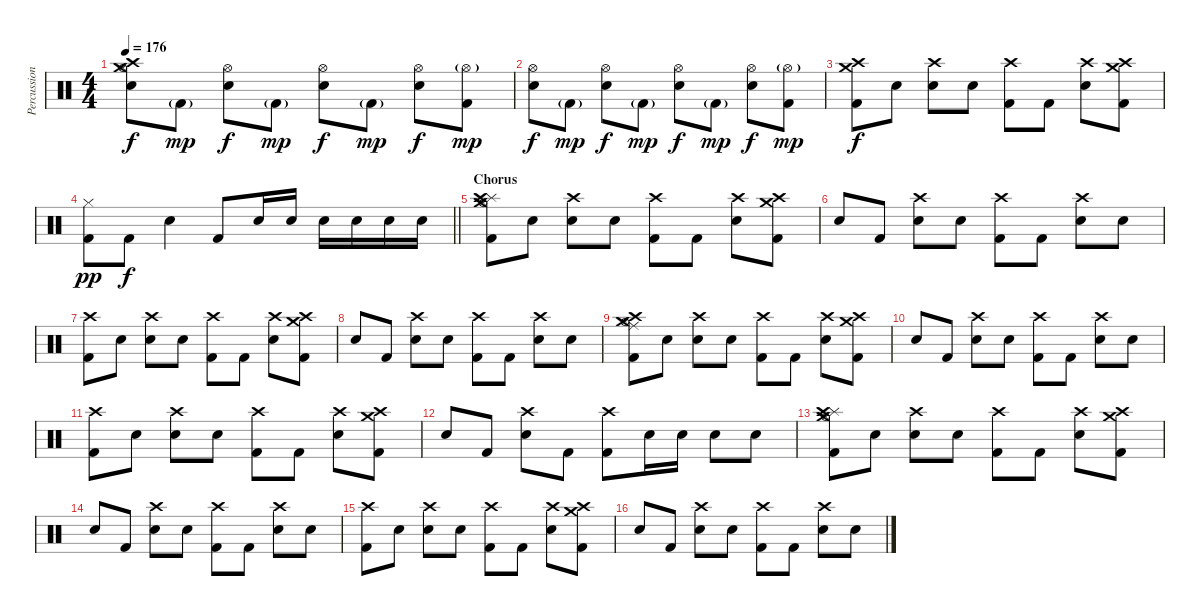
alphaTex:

\track ("Percussion" "Percussion") {instrument percussion}
\staff {score}
\articulation defaults
\ts (4 4)
\tempo 176
\clef neutral
\ks c
("Crash medium (hit)" "Crash high (hit)" "Hi-Hat (open)" "Electric Snare (hit)").8{dy f} "Kick (hit) 2"{g}.8{dy mp} ("Hi-Hat (open)" "Electric Snare (hit)").8{dy f} "Kick (hit) 2"{g}.8{dy mp} ("Hi-Hat (open)" "Electric Snare (hit)").8{dy f} "Kick (hit) 2"{g}.8{dy mp} ("Hi-Hat (open)" "Electric Snare (hit)").8{dy f} ("Hi-Hat (open)"{g} "Kick (hit) 2").8{dy mp} |
("Hi-Hat (open)" "Electric Snare (hit)").8{dy f} "Kick (hit) 2"{g}.8{dy mp} ("Hi-Hat (open)" "Electric Snare (hit)").8{dy f} "Kick (hit) 2"{g}.8{dy mp} ("Hi-Hat (open)" "Electric Snare (hit)").8{dy f} "Kick (hit) 2"{g}.8{dy mp} ("Hi-Hat (open)" "Electric Snare (hit)").8{dy f} ("Hi-Hat (open)"{g} "Kick (hit) 2").8{dy mp} |
("Crash medium (hit)" "Crash high (hit)" "Kick (hit) 2").8{dy f} "Snare (hit)"{x}.8 ("Crash high (hit)" "Electric Snare (hit)").8 "Snare (hit)"{x}.8 ("Crash high (hit)" "Kick (hit) 2").8 "Kick (hit) 2".8 ("Crash high (hit)" "Electric Snare (hit)").8 ("Crash high (hit)" "Crash medium (hit)" "Kick (hit) 2").8 |
\barLineRight lightlight
("Hi-Hat (closed)" "Kick (hit) 2").8{dy pp} "Kick (hit) 2".8{dy f} "Electric Snare (hit)".4 "Kick (hit) 2".8 "Electric Snare (hit)".16 "Electric Snare (hit)".16 "Electric Snare (hit)".16 "Electric Snare (hit)".16 "Electric Snare (hit)".16 "Electric Snare (hit)".16 |
\section ("" "Chorus")
("Splash (hit)" "Hi-Hat (open)" "Crash medium (hit)" "Crash high (hit)" "Kick (hit) 2").8 "Snare (hit)"{x}.8 ("Crash high (hit)" "Electric Snare (hit)").8 "Snare (hit)"{x}.8 ("Crash high (hit)" "Kick (hit) 2").8 "Kick (hit) 2".8 ("Crash high (hit)" "Electric Snare (hit)").8 ("Crash high (hit)" "Crash medium (hit)" "Kick (hit) 2").8 |
"Snare (hit)"{x}.8 "Kick (hit) 2".8 ("Crash high (hit)" "Electric Snare (hit)").8 "Snare (hit)"{x}.8 ("Crash high (hit)" "Kick (hit) 2").8 "Kick (hit) 2".8 ("Crash high (hit)" "Electric Snare (hit)").8 "Snare (hit)"{x}.8 |
("Crash high (hit)" "Kick (hit) 2").8 "Snare (hit)"{x}.8 ("Crash high (hit)" "Electric Snare (hit)").8 "Snare (hit)"{x}.8 ("Crash high (hit)" "Kick (hit) 2").8 "Kick (hit) 2".8 ("Crash high (hit)" "Electric Snare (hit)").8 ("Crash high (hit)" "Crash medium (hit)" "Kick (hit) 2").8 |
"Snare (hit)"{x}.8 "Kick (hit) 2".8 ("Crash high (hit)" "Electric Snare (hit)").8 "Snare (hit)"{x}.8 ("Crash high (hit)" "Kick (hit) 2").8 "Kick (hit) 2".8 ("Crash high (hit)" "Electric Snare (hit)").8 "Electric Snare (hit)".8 |
("Ride (middle)" "Hi-Hat (open)" "Crash medium (hit)" "Crash high (hit)" "Kick (hit) 2").8 "Snare (hit)"{x}.8 ("Crash high (hit)" "Electric Snare (hit)").8 "Snare (hit)"{x}.8 ("Crash high (hit)" "Kick (hit) 2").8 "Kick (hit) 2".8 ("Crash high (hit)" "Electric Snare (hit)").8 ("Crash high (hit)" "Crash medium (hit)" "Kick (hit) 2").8 |
"Snare (hit)"{x}.8 "Kick (hit) 2".8 ("Crash high (hit)" "Electric Snare (hit)").8 "Snare (hit)"{x}.8 ("Crash high (hit)" "Kick (hit) 2").8 "Kick (hit) 2".8 ("Crash high (hit)" "Electric Snare (hit)").8 "Snare (hit)"{x}.8 |
("Crash high (hit)" "Kick (hit) 2").8 "Snare (hit)"{x}.8 ("Crash high (hit)" "Electric Snare (hit)").8 "Snare (hit)"{x}.8 ("Crash high (hit)" "Kick (hit) 2").8 "Kick (hit) 2".8 ("Crash high (hit)" "Electric Snare (hit)").8 ("Crash high (hit)" "Crash medium (hit)" "Kick (hit) 2").8 |
"Snare (hit)"{x}.8 "Kick (hit) 2".8 ("Crash high (hit)" "Electric Snare (hit)").8 "Kick (hit) 2".8 ("Crash high (hit)" "Kick (hit) 2").8 "Electric Snare (hit)".16 "Electric Snare (hit)".16 "Electric Snare (hit)".8 "Electric Snare (hit)".8 |
("Splash (hit)" "Hi-Hat (open)" "Crash medium (hit)" "Crash high (hit)" "Kick (hit) 2").8 "Snare (hit)"{x}.8 ("Crash high (hit)" "Electric Snare (hit)").8 "Snare (hit)"{x}.8 ("Crash high (hit)" "Kick (hit) 2").8 "Kick (hit) 2".8 ("Crash high (hit)" "Electric Snare (hit)").8 ("Crash high (hit)" "Crash medium (hit)" "Kick (hit) 2").8 |
"Snare (hit)"{x}.8 "Kick (hit) 2".8 ("Crash high (hit)" "Electric Snare (hit)").8 "Snare (hit)"{x}.8 ("Crash high (hit)" "Kick (hit) 2").8 "Kick (hit) 2".8 ("Crash high (hit)" "Electric Snare (hit)").8 "Snare (hit)"{x}.8 |
("Crash high (hit)" "Kick (hit) 2").8 "Snare (hit)"{x}.8 ("Crash high (hit)" "Electric Snare (hit)").8 "Snare (hit)"{x}.8 ("Crash high (hit)" "Kick (hit) 2").8 "Kick (hit) 2".8 ("Crash high (hit)" "Electric Snare (hit)").8 ("Crash high (hit)" "Crash medium (hit)" "Kick (hit) 2").8 |
"Snare (hit)"{x}.8 "Kick (hit) 2".8 ("Crash high (hit)" "Electric Snare (hit)").8 "Snare (hit)"{x}.8 ("Crash high (hit)" "Kick (hit) 2").8 "Kick (hit) 2".8 ("Crash high (hit)" "Electric Snare (hit)").8 "Snare (hit)"{x}.8
